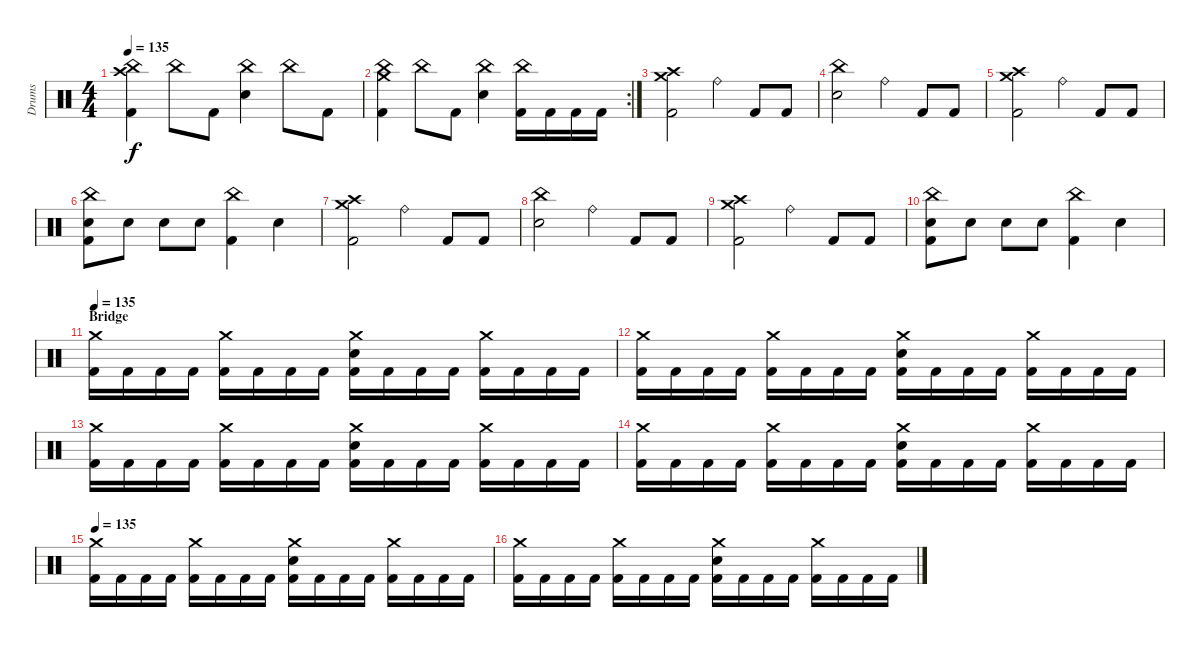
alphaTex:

\track ("Drums" "Drums") {instrument percussion}
\staff {score}
\articulation defaults
\ts (4 4)
\tempo 135
\clef neutral
\ks c
("Crash high (hit)" "China (hit)" "Kick (hit) 2").4{dy f} "China (hit)".8 "Kick (hit) 2".8 ("China (hit)" "Electric Snare (hit)").4 "China (hit)".8 "Kick (hit) 2".8 |
\rc 2
("Crash medium (hit)" "China (hit)" "Kick (hit) 2").4 "China (hit)".8 "Kick (hit) 2".8 ("China (hit)" "Electric Snare (hit)").4 ("China (hit)" "Kick (hit) 2").16 "Kick (hit) 2".16 "Kick (hit) 2".16 "Kick (hit) 2".16 |
("Crash medium (hit)" "Crash high (hit)" "Kick (hit) 2").2 "Ride (bell)".4 "Kick (hit) 2".8 "Kick (hit) 2".8 |
("China (hit)" "Electric Snare (hit)").2 "Ride (bell)".4 "Kick (hit) 2".8 "Kick (hit) 2".8 |
("Crash medium (hit)" "Crash high (hit)" "Kick (hit) 2").2 "Ride (bell)".4 "Kick (hit) 2".8 "Kick (hit) 2".8 |
("China (hit)" "Electric Snare (hit)" "Kick (hit) 2").8 "Electric Snare (hit)".8 "Electric Snare (hit)".8 "Electric Snare (hit)".8 ("China (hit)" "Kick (hit) 2").4 "Electric Snare (hit)".4 |
("Crash medium (hit)" "Crash high (hit)" "Kick (hit) 2").2 "Ride (bell)".4 "Kick (hit) 2".8 "Kick (hit) 2".8 |
("China (hit)" "Electric Snare (hit)").2 "Ride (bell)".4 "Kick (hit) 2".8 "Kick (hit) 2".8 |
("Crash medium (hit)" "Crash high (hit)" "Kick (hit) 2").2 "Ride (bell)".4 "Kick (hit) 2".8 "Kick (hit) 2".8 |
("China (hit)" "Electric Snare (hit)" "Kick (hit) 2").8 "Electric Snare (hit)".8 "Electric Snare (hit)".8 "Electric Snare (hit)".8 ("China (hit)" "Kick (hit) 2").4 "Electric Snare (hit)".4 |
\section ("" "Bridge")
\tempo 135
("Crash medium (hit)" "Kick (hit) 2").16 "Kick (hit) 2".16 "Kick (hit) 2".16 "Kick (hit) 2".16 ("Crash medium (hit)" "Kick (hit) 2").16 "Kick (hit) 2".16 "Kick (hit) 2".16 "Kick (hit) 2".16 ("Crash medium (hit)" "Electric Snare (hit)" "Kick (hit) 2").16 "Kick (hit) 2".16 "Kick (hit) 2".16 "Kick (hit) 2".16 ("Crash medium (hit)" "Kick (hit) 2").16 "Kick (hit) 2".16 "Kick (hit) 2".16 "Kick (hit) 2".16 |
("Crash medium (hit)" "Kick (hit) 2").16 "Kick (hit) 2".16 "Kick (hit) 2".16 "Kick (hit) 2".16 ("Crash medium (hit)" "Kick (hit) 2").16 "Kick (hit) 2".16 "Kick (hit) 2".16 "Kick (hit) 2".16 ("Crash medium (hit)" "Electric Snare (hit)" "Kick (hit) 2").16 "Kick (hit) 2".16 "Kick (hit) 2".16 "Kick (hit) 2".16 ("Crash medium (hit)" "Kick (hit) 2").16 "Kick (hit) 2".16 "Kick (hit) 2".16 "Kick (hit) 2".16 |
("Crash medium (hit)" "Kick (hit) 2").16 "Kick (hit) 2".16 "Kick (hit) 2".16 "Kick (hit) 2".16 ("Crash medium (hit)" "Kick (hit) 2").16 "Kick (hit) 2".16 "Kick (hit) 2".16 "Kick (hit) 2".16 ("Crash medium (hit)" "Electric Snare (hit)" "Kick (hit) 2").16 "Kick (hit) 2".16 "Kick (hit) 2".16 "Kick (hit) 2".16 ("Crash medium (hit)" "Kick (hit) 2").16 "Kick (hit) 2".16 "Kick (hit) 2".16 "Kick (hit) 2".16 |
("Crash medium (hit)" "Kick (hit) 2").16 "Kick (hit) 2".16 "Kick (hit) 2".16 "Kick (hit) 2".16 ("Crash medium (hit)" "Kick (hit) 2").16 "Kick (hit) 2".16 "Kick (hit) 2".16 "Kick (hit) 2".16 ("Crash medium (hit)" "Electric Snare (hit)" "Kick (hit) 2").16 "Kick (hit) 2".16 "Kick (hit) 2".16 "Kick (hit) 2".16 ("Crash medium (hit)" "Kick (hit) 2").16 "Kick (hit) 2".16 "Kick (hit) 2".16 "Kick (hit) 2".16 |
\tempo 135
("Crash medium (hit)" "Kick (hit) 2").16 "Kick (hit) 2".16 "Kick (hit) 2".16 "Kick (hit) 2".16 ("Crash medium (hit)" "Kick (hit) 2").16 "Kick (hit) 2".16 "Kick (hit) 2".16 "Kick (hit) 2".16 ("Crash medium (hit)" "Electric Snare (hit)" "Kick (hit) 2").16 "Kick (hit) 2".16 "Kick (hit) 2".16 "Kick (hit) 2".16 ("Crash medium (hit)" "Kick (hit) 2").16 "Kick (hit) 2".16 "Kick (hit) 2".16 "Kick (hit) 2".16 |
("Crash medium (hit)" "Kick (hit) 2").16 "Kick (hit) 2".16 "Kick (hit) 2".16 "Kick (hit) 2".16 ("Crash medium (hit)" "Kick (hit) 2").16 "Kick (hit) 2".16 "Kick (hit) 2".16 "Kick (hit) 2".16 ("Crash medium (hit)" "Electric Snare (hit)" "Kick (hit) 2").16 "Kick (hit) 2".16 "Kick (hit) 2".16 "Kick (hit) 2".16 ("Crash medium (hit)" "Kick (hit) 2").16 "Kick (hit) 2".16 "Kick (hit) 2".16 "Kick (hit) 2".16
